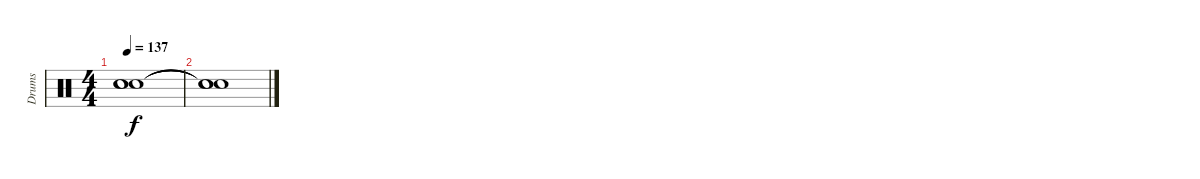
\track ("Drums" "Drums") {instrument percussion}
\staff {score}
\articulation defaults
\ts (4 4)
\tempo 137
\clef neutral
\ks c
("Snare (hit)"{t} "Snare (hit)"{t} "Snare (hit)"{t}).1{dy f} |
("Snare (hit)"{t} "Snare (hit)"{t} "Snare (hit)"{t}).1
